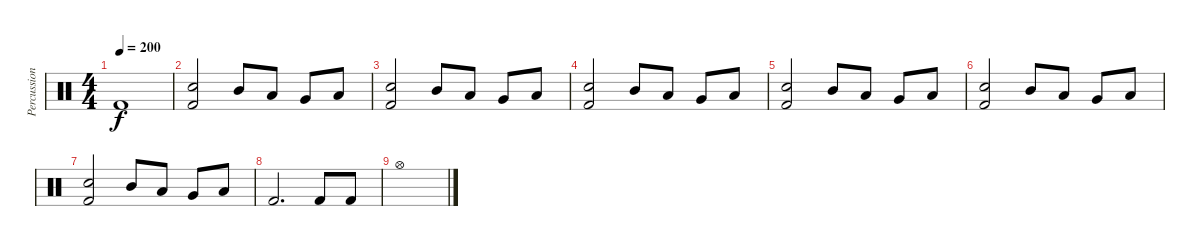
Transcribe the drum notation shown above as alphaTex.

\track ("Percussions" "Percussion") {instrument percussion}
\staff {score}
\articulation defaults
\ts (4 4)
\tempo 200
\clef neutral
\ks c "Kick (hit) 2".1{dy f}
|
("Snare (hit) 2" "Kick (hit) 2").2 "Mid Tom (hit)".8 "Low Tom (hit)".8 "Very Low Tom (hit)".8 "Low Floor Tom (hit)".8 |
("Snare (hit) 2" "Kick (hit) 2").2 "Mid Tom (hit)".8 "Low Tom (hit)".8 "Very Low Tom (hit)".8 "Low Floor Tom (hit)".8 |
("Snare (hit) 2" "Kick (hit) 2").2 "Mid Tom (hit)".8 "Low Tom (hit)".8 "Very Low Tom (hit)".8 "Low Floor Tom (hit)".8 |
("Snare (hit) 2" "Kick (hit) 2").2 "Mid Tom (hit)".8 "Low Tom (hit)".8 "Very Low Tom (hit)".8 "Low Floor Tom (hit)".8 |
("Snare (hit) 2" "Kick (hit) 2").2 "Mid Tom (hit)".8 "Low Tom (hit)".8 "Very Low Tom (hit)".8 "Low Floor Tom (hit)".8 |
("Snare (hit) 2" "Kick (hit) 2").2 "Mid Tom (hit)".8 "Low Tom (hit)".8 "Very Low Tom (hit)".8 "Low Floor Tom (hit)".8 |
"Kick (hit) 2".2{d} "Kick (hit) 2".8 "Kick (hit) 2".8 |
"Hi-Hat (open)".1
